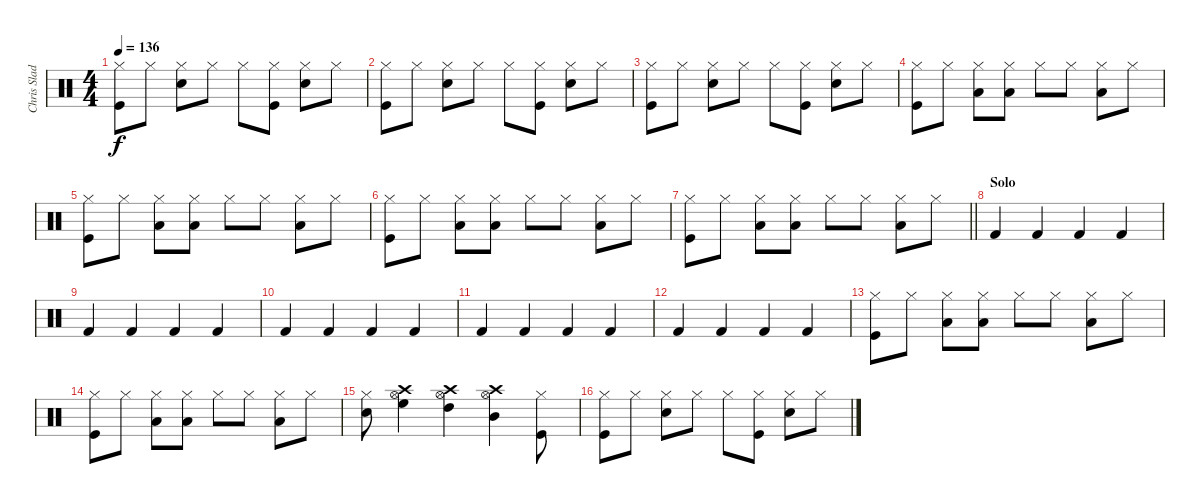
\track ("Chris Slade" "Chris Slad") {instrument percussion}
\staff {score}
\articulation defaults
\ts (4 4)
\tempo 136
\clef neutral
\ks c
("Hi-Hat (closed)" "Kick (hit)").8{dy f} "Hi-Hat (closed)".8 ("Hi-Hat (closed)" "Snare (hit) 2").8 "Hi-Hat (closed)".8 "Hi-Hat (closed)".8 ("Hi-Hat (closed)" "Kick (hit)").8 ("Hi-Hat (closed)" "Snare (hit) 2").8 "Hi-Hat (closed)".8 |
("Hi-Hat (closed)" "Kick (hit)").8 "Hi-Hat (closed)".8 ("Hi-Hat (closed)" "Snare (hit) 2").8 "Hi-Hat (closed)".8 "Hi-Hat (closed)".8 ("Hi-Hat (closed)" "Kick (hit)").8 ("Hi-Hat (closed)" "Snare (hit) 2").8 "Hi-Hat (closed)".8 |
("Hi-Hat (closed)" "Kick (hit)").8 "Hi-Hat (closed)".8 ("Hi-Hat (closed)" "Snare (hit) 2").8 "Hi-Hat (closed)".8 "Hi-Hat (closed)".8 ("Hi-Hat (closed)" "Kick (hit)").8 ("Hi-Hat (closed)" "Snare (hit) 2").8 "Hi-Hat (closed)".8 |
("Hi-Hat (closed)" "Kick (hit)").8 "Hi-Hat (closed)".8 ("Hi-Hat (closed)" "Low Tom (hit)").8 ("Hi-Hat (closed)" "Low Tom (hit)").8 "Hi-Hat (closed)".8 "Hi-Hat (closed)".8 ("Hi-Hat (closed)" "Low Tom (hit)").8 "Hi-Hat (closed)".8 |
("Hi-Hat (closed)" "Kick (hit)").8 "Hi-Hat (closed)".8 ("Hi-Hat (closed)" "Low Tom (hit)").8 ("Hi-Hat (closed)" "Low Tom (hit)").8 "Hi-Hat (closed)".8 "Hi-Hat (closed)".8 ("Hi-Hat (closed)" "Low Tom (hit)").8 "Hi-Hat (closed)".8 |
("Hi-Hat (closed)" "Kick (hit)").8 "Hi-Hat (closed)".8 ("Hi-Hat (closed)" "Low Tom (hit)").8 ("Hi-Hat (closed)" "Low Tom (hit)").8 "Hi-Hat (closed)".8 "Hi-Hat (closed)".8 ("Hi-Hat (closed)" "Low Tom (hit)").8 "Hi-Hat (closed)".8 |
\barLineRight lightlight
("Hi-Hat (closed)" "Kick (hit)").8 "Hi-Hat (closed)".8 ("Hi-Hat (closed)" "Low Tom (hit)").8 ("Hi-Hat (closed)" "Low Tom (hit)").8 "Hi-Hat (closed)".8 "Hi-Hat (closed)".8 ("Hi-Hat (closed)" "Low Tom (hit)").8 "Hi-Hat (closed)".8 |
\section ("" "Solo")
"Kick (hit) 2".4 "Kick (hit) 2".4 "Kick (hit) 2".4 "Kick (hit) 2".4 |
"Kick (hit) 2".4 "Kick (hit) 2".4 "Kick (hit) 2".4 "Kick (hit) 2".4 |
"Kick (hit) 2".4 "Kick (hit) 2".4 "Kick (hit) 2".4 "Kick (hit) 2".4 |
"Kick (hit) 2".4 "Kick (hit) 2".4 "Kick (hit) 2".4 "Kick (hit) 2".4 |
"Kick (hit) 2".4 "Kick (hit) 2".4 "Kick (hit) 2".4 "Kick (hit) 2".4 |
("Hi-Hat (closed)" "Kick (hit)").8 "Hi-Hat (closed)".8 ("Hi-Hat (closed)" "Low Tom (hit)").8 ("Hi-Hat (closed)" "Low Tom (hit)").8 "Hi-Hat (closed)".8 "Hi-Hat (closed)".8 ("Hi-Hat (closed)" "Low Tom (hit)").8 "Hi-Hat (closed)".8 |
("Hi-Hat (closed)" "Kick (hit)").8 "Hi-Hat (closed)".8 ("Hi-Hat (closed)" "Low Tom (hit)").8 ("Hi-Hat (closed)" "Low Tom (hit)").8 "Hi-Hat (closed)".8 "Hi-Hat (closed)".8 ("Hi-Hat (closed)" "Low Tom (hit)").8 "Hi-Hat (closed)".8 |
("Hi-Hat (closed)" "Snare (hit) 2").8 ("Hi-Hat (open)" "Crash high (hit)" "High Floor Tom (hit)").4 ("Hi-Hat (open)" "Crash high (hit)" "High Tom (hit)").4 ("Hi-Hat (open)" "Crash high (hit)" "Mid Tom (hit)").4 ("Hi-Hat (closed)" "Kick (hit)").8 |
("Hi-Hat (closed)" "Kick (hit)").8 "Hi-Hat (closed)".8 ("Hi-Hat (closed)" "Snare (hit) 2").8 "Hi-Hat (closed)".8 "Hi-Hat (closed)".8 ("Hi-Hat (closed)" "Kick (hit)").8 ("Hi-Hat (closed)" "Snare (hit) 2").8 "Hi-Hat (closed)".8
